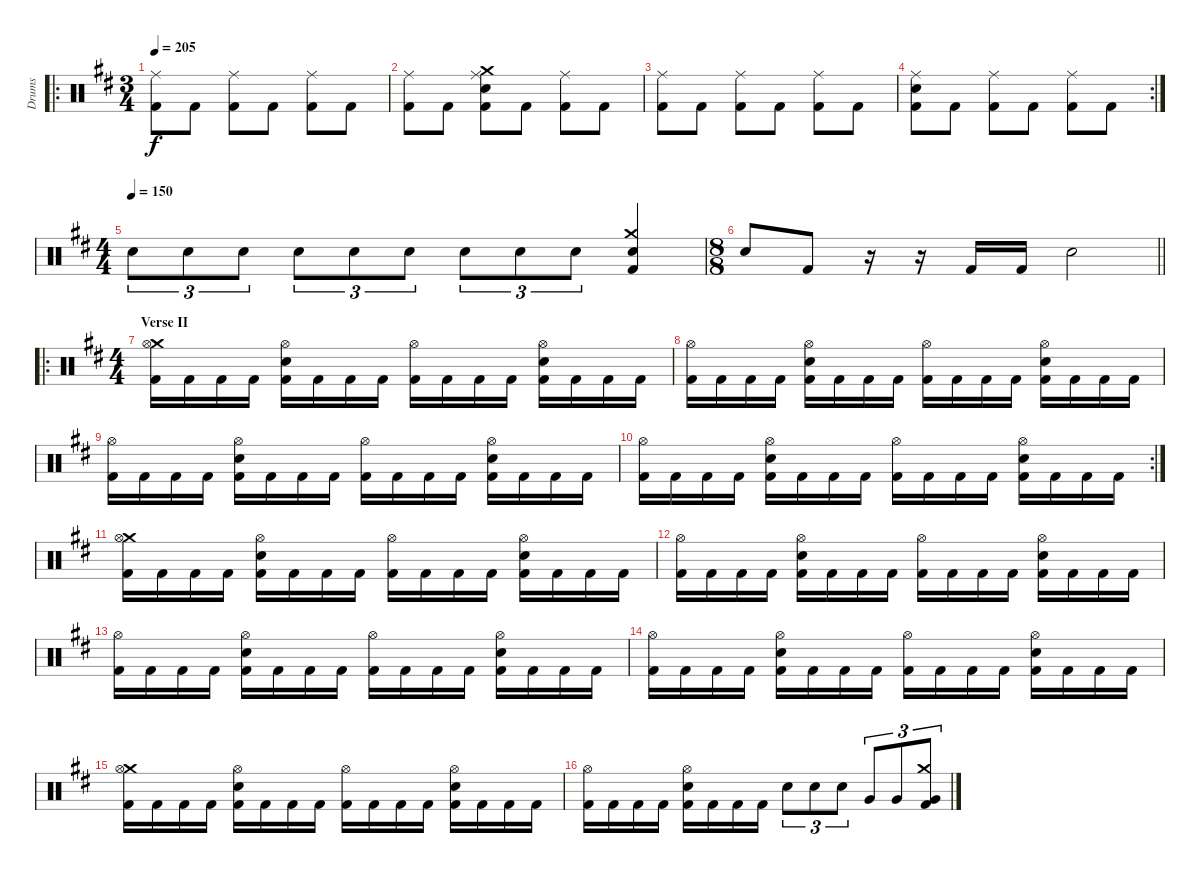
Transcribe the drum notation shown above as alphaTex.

\track ("Drums" "Drums") {instrument percussion}
\staff {score}
\articulation defaults
\ro
\ts (3 4)
\tempo 205
\clef neutral
\ks d
("Ride (middle)" "Kick (hit) 2").8{dy f} "Kick (hit) 2".8 ("Ride (middle)" "Kick (hit) 2").8 "Kick (hit) 2".8 ("Ride (middle)" "Kick (hit) 2").8 "Kick (hit) 2".8 |
("Ride (middle)" "Kick (hit) 2").8 "Kick (hit) 2".8 ("Crash medium (hit)" "Ride (middle)" "Electric Snare (hit)" "Kick (hit) 2").8 "Kick (hit) 2".8 ("Ride (middle)" "Kick (hit) 2").8 "Kick (hit) 2".8 |
("Ride (middle)" "Kick (hit) 2").8 "Kick (hit) 2".8 ("Ride (middle)" "Kick (hit) 2").8 "Kick (hit) 2".8 ("Ride (middle)" "Kick (hit) 2").8 "Kick (hit) 2".8 |
\rc 2
("Ride (middle)" "Electric Snare (hit)" "Kick (hit) 2").8 "Kick (hit) 2".8 ("Ride (middle)" "Kick (hit) 2").8 "Kick (hit) 2".8 ("Ride (middle)" "Kick (hit) 2").8 "Kick (hit) 2".8 |
\ts (4 4)
\tempo (150)
"Electric Snare (hit)".8{tu (3 2)} "Electric Snare (hit)".8{tu (3 2)} "Electric Snare (hit)".8{tu (3 2)} "Electric Snare (hit)".8{tu (3 2)} "Electric Snare (hit)".8{tu (3 2)} "Electric Snare (hit)".8{tu (3 2)} "Electric Snare (hit)".8{tu (3 2)} "Electric Snare (hit)".8{tu (3 2)} "Electric Snare (hit)".8{tu (3 2)} ("Crash medium (hit)" "Electric Snare (hit)" "Kick (hit) 2").4 |
\ts (8 8)
\barLineRight lightlight "Electric Snare (hit)".8 "Kick (hit) 2".8
r.16 r.16 "Kick (hit) 2".16 "Kick (hit) 2".16 "Electric Snare (hit)".2 |
\ro
\ts (4 4)
\section ("" "Verse II")
("Crash medium (hit)" "Hi-Hat (open)" "Kick (hit) 2").16 "Kick (hit) 2".16 "Kick (hit) 2".16 "Kick (hit) 2".16 ("Hi-Hat (open)" "Electric Snare (hit)" "Kick (hit) 2").16 "Kick (hit) 2".16 "Kick (hit) 2".16 "Kick (hit) 2".16 ("Hi-Hat (open)" "Kick (hit) 2").16 "Kick (hit) 2".16 "Kick (hit) 2".16 "Kick (hit) 2".16 ("Hi-Hat (open)" "Electric Snare (hit)" "Kick (hit) 2").16 "Kick (hit) 2".16 "Kick (hit) 2".16 "Kick (hit) 2".16 |
("Hi-Hat (open)" "Kick (hit) 2").16 "Kick (hit) 2".16 "Kick (hit) 2".16 "Kick (hit) 2".16 ("Hi-Hat (open)" "Electric Snare (hit)" "Kick (hit) 2").16 "Kick (hit) 2".16 "Kick (hit) 2".16 "Kick (hit) 2".16 ("Hi-Hat (open)" "Kick (hit) 2").16 "Kick (hit) 2".16 "Kick (hit) 2".16 "Kick (hit) 2".16 ("Hi-Hat (open)" "Electric Snare (hit)" "Kick (hit) 2").16 "Kick (hit) 2".16 "Kick (hit) 2".16 "Kick (hit) 2".16 |
("Hi-Hat (open)" "Kick (hit) 2").16 "Kick (hit) 2".16 "Kick (hit) 2".16 "Kick (hit) 2".16 ("Hi-Hat (open)" "Electric Snare (hit)" "Kick (hit) 2").16 "Kick (hit) 2".16 "Kick (hit) 2".16 "Kick (hit) 2".16 ("Hi-Hat (open)" "Kick (hit) 2").16 "Kick (hit) 2".16 "Kick (hit) 2".16 "Kick (hit) 2".16 ("Hi-Hat (open)" "Electric Snare (hit)" "Kick (hit) 2").16 "Kick (hit) 2".16 "Kick (hit) 2".16 "Kick (hit) 2".16 |
\rc 2
("Hi-Hat (open)" "Kick (hit) 2").16 "Kick (hit) 2".16 "Kick (hit) 2".16 "Kick (hit) 2".16 ("Hi-Hat (open)" "Electric Snare (hit)" "Kick (hit) 2").16 "Kick (hit) 2".16 "Kick (hit) 2".16 "Kick (hit) 2".16 ("Hi-Hat (open)" "Kick (hit) 2").16 "Kick (hit) 2".16 "Kick (hit) 2".16 "Kick (hit) 2".16 ("Hi-Hat (open)" "Electric Snare (hit)" "Kick (hit) 2").16 "Kick (hit) 2".16 "Kick (hit) 2".16 "Kick (hit) 2".16 |
("Crash medium (hit)" "Hi-Hat (open)" "Kick (hit) 2").16 "Kick (hit) 2".16 "Kick (hit) 2".16 "Kick (hit) 2".16 ("Hi-Hat (open)" "Electric Snare (hit)" "Kick (hit) 2").16 "Kick (hit) 2".16 "Kick (hit) 2".16 "Kick (hit) 2".16 ("Hi-Hat (open)" "Kick (hit) 2").16 "Kick (hit) 2".16 "Kick (hit) 2".16 "Kick (hit) 2".16 ("Hi-Hat (open)" "Electric Snare (hit)" "Kick (hit) 2").16 "Kick (hit) 2".16 "Kick (hit) 2".16 "Kick (hit) 2".16 |
("Hi-Hat (open)" "Kick (hit) 2").16 "Kick (hit) 2".16 "Kick (hit) 2".16 "Kick (hit) 2".16 ("Hi-Hat (open)" "Electric Snare (hit)" "Kick (hit) 2").16 "Kick (hit) 2".16 "Kick (hit) 2".16 "Kick (hit) 2".16 ("Hi-Hat (open)" "Kick (hit) 2").16 "Kick (hit) 2".16 "Kick (hit) 2".16 "Kick (hit) 2".16 ("Hi-Hat (open)" "Electric Snare (hit)" "Kick (hit) 2").16 "Kick (hit) 2".16 "Kick (hit) 2".16 "Kick (hit) 2".16 |
("Hi-Hat (open)" "Kick (hit) 2").16 "Kick (hit) 2".16 "Kick (hit) 2".16 "Kick (hit) 2".16 ("Hi-Hat (open)" "Electric Snare (hit)" "Kick (hit) 2").16 "Kick (hit) 2".16 "Kick (hit) 2".16 "Kick (hit) 2".16 ("Hi-Hat (open)" "Kick (hit) 2").16 "Kick (hit) 2".16 "Kick (hit) 2".16 "Kick (hit) 2".16 ("Hi-Hat (open)" "Electric Snare (hit)" "Kick (hit) 2").16 "Kick (hit) 2".16 "Kick (hit) 2".16 "Kick (hit) 2".16 |
("Hi-Hat (open)" "Kick (hit) 2").16 "Kick (hit) 2".16 "Kick (hit) 2".16 "Kick (hit) 2".16 ("Hi-Hat (open)" "Electric Snare (hit)" "Kick (hit) 2").16 "Kick (hit) 2".16 "Kick (hit) 2".16 "Kick (hit) 2".16 ("Hi-Hat (open)" "Kick (hit) 2").16 "Kick (hit) 2".16 "Kick (hit) 2".16 "Kick (hit) 2".16 ("Hi-Hat (open)" "Electric Snare (hit)" "Kick (hit) 2").16 "Kick (hit) 2".16 "Kick (hit) 2".16 "Kick (hit) 2".16 |
("Crash medium (hit)" "Hi-Hat (open)" "Kick (hit) 2").16 "Kick (hit) 2".16 "Kick (hit) 2".16 "Kick (hit) 2".16 ("Hi-Hat (open)" "Electric Snare (hit)" "Kick (hit) 2").16 "Kick (hit) 2".16 "Kick (hit) 2".16 "Kick (hit) 2".16 ("Hi-Hat (open)" "Kick (hit) 2").16 "Kick (hit) 2".16 "Kick (hit) 2".16 "Kick (hit) 2".16 ("Hi-Hat (open)" "Electric Snare (hit)" "Kick (hit) 2").16 "Kick (hit) 2".16 "Kick (hit) 2".16 "Kick (hit) 2".16 |
("Hi-Hat (open)" "Kick (hit) 2").16 "Kick (hit) 2".16 "Kick (hit) 2".16 "Kick (hit) 2".16 ("Hi-Hat (open)" "Electric Snare (hit)" "Kick (hit) 2").16 "Kick (hit) 2".16 "Kick (hit) 2".16 "Kick (hit) 2".16 "Electric Snare (hit)".8{tu (3 2)} "Electric Snare (hit)".8{tu (3 2)} "Electric Snare (hit)".8{tu (3 2)} "Very Low Tom (hit)".8{tu (3 2)} "Very Low Tom (hit)".8{tu (3 2)} ("Crash medium (hit)" "Very Low Tom (hit)" "Kick (hit) 2").8{tu (3 2)}
